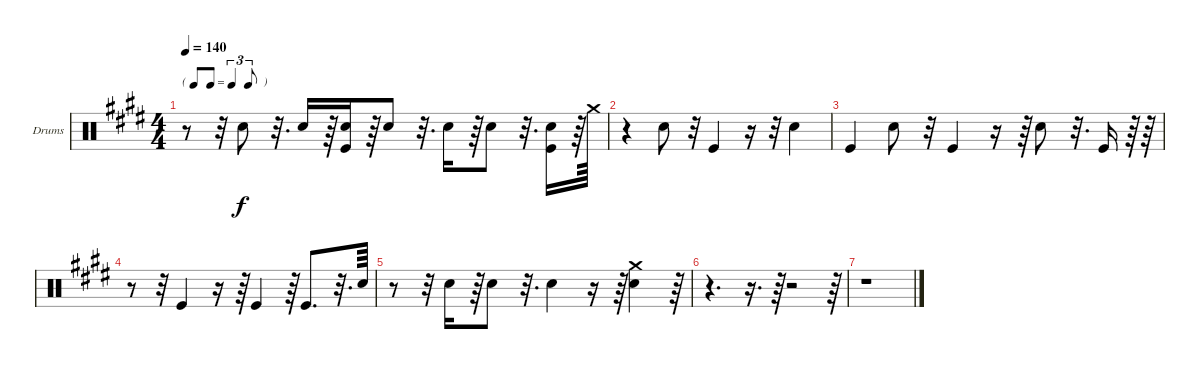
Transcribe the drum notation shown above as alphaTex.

\bracketExtendMode groupsimilarinstruments
\firstSystemTrackNameOrientation horizontal
\otherSystemsTrackNameOrientation horizontal
\track ("Drumkit" "Drums") {instrument percussion}
\staff {score}
\articulation defaults
\ts (4 4)
\tf triplet8th
\tempo 140
\clef neutral
\ks e
r.8{dy f} r.32 "Snare (hit) 2".8 r.32{d} "Snare (hit) 2".16 r.64 ("Kick (hit)" "Snare (hit) 2").16 r.64 "Snare (hit) 2".8 r.32{d} "Snare (hit) 2".16 r.64 "Snare (hit) 2".8 r.32{d} ("Kick (hit)" "Snare (hit) 2").16 r.64 "Crash medium (hit)".64 |
r.4 "Snare (hit) 2".8 r.32 "Kick (hit)".4 r.16 r.32 "Snare (hit) 2".4 |
"Kick (hit)".4 "Snare (hit) 2".8 r.32 "Kick (hit)".4 r.16 r.64 "Snare (hit) 2".8 r.32{d} "Kick (hit)".16 r.64 r.64 |
r.8 r.32 "Kick (hit)".4 r.16 r.64 "Kick (hit)".4 r.64 "Kick (hit)".8{d} r.32{d} "Snare (hit) 2".64 |
r.8 r.32 "Snare (hit) 2".16 r.64 "Snare (hit) 2".8 r.32{d} "Snare (hit) 2".4 r.16 r.64 ("Snare (hit) 2" "Crash medium (hit)").4 r.64 |
r.4{d} r.16{d} r.64 r.2 r.64 |
r.1
